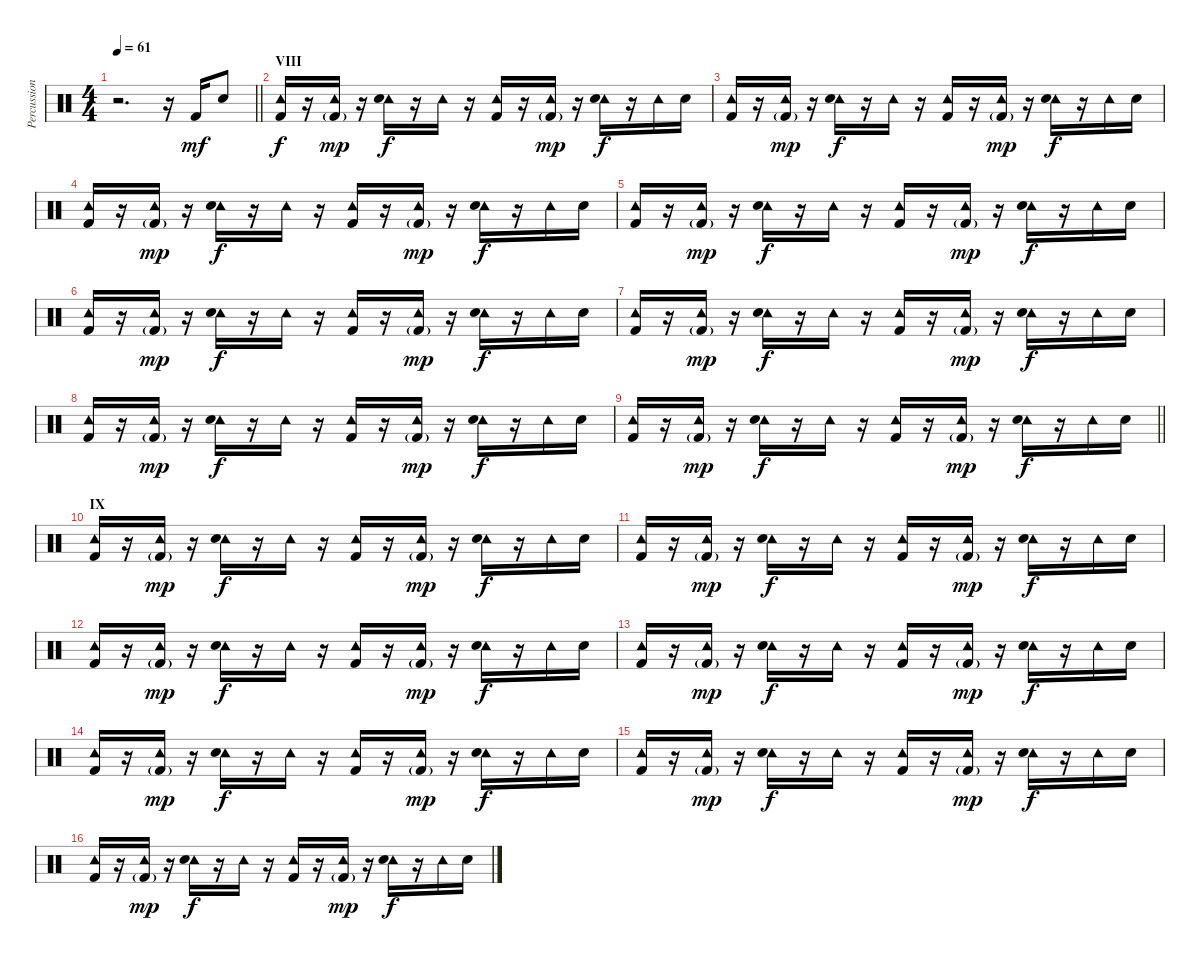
\track ("Percussion" "Percussion") {instrument percussion}
\staff {score}
\articulation defaults
\ts (4 4)
\tempo 61
\clef neutral
\barLineRight lightlight
\ks c
r.2{d dy f} r.16 "Kick (hit) 2".16{dy mf} "Snare (hit) 2".8 |
\section ("" "VIII")
("Tambourine (hit)" "Kick (hit) 2").16{dy f} r.16 ("Tambourine (hit)" "Kick (hit) 2"{g}).16{dy mp} r.16 ("Tambourine (hit)" "Hand Clap (hit)").16{dy f} r.16 "Tambourine (hit)".16 r.16 ("Tambourine (hit)" "Kick (hit) 2").16 r.16 ("Tambourine (hit)" "Kick (hit) 2"{g}).16{dy mp} r.16 ("Tambourine (hit)" "Hand Clap (hit)").16{dy f} r.16 "Tambourine (hit)".16 "Hand Clap (hit)".16 |
("Tambourine (hit)" "Kick (hit) 2").16 r.16 ("Tambourine (hit)" "Kick (hit) 2"{g}).16{dy mp} r.16 ("Tambourine (hit)" "Hand Clap (hit)").16{dy f} r.16 "Tambourine (hit)".16 r.16 ("Tambourine (hit)" "Kick (hit) 2").16 r.16 ("Tambourine (hit)" "Kick (hit) 2"{g}).16{dy mp} r.16 ("Tambourine (hit)" "Hand Clap (hit)").16{dy f} r.16 "Tambourine (hit)".16 "Hand Clap (hit)".16 |
("Tambourine (hit)" "Kick (hit) 2").16 r.16 ("Tambourine (hit)" "Kick (hit) 2"{g}).16{dy mp} r.16 ("Tambourine (hit)" "Hand Clap (hit)").16{dy f} r.16 "Tambourine (hit)".16 r.16 ("Tambourine (hit)" "Kick (hit) 2").16 r.16 ("Tambourine (hit)" "Kick (hit) 2"{g}).16{dy mp} r.16 ("Tambourine (hit)" "Hand Clap (hit)").16{dy f} r.16 "Tambourine (hit)".16 "Hand Clap (hit)".16 |
("Tambourine (hit)" "Kick (hit) 2").16 r.16 ("Tambourine (hit)" "Kick (hit) 2"{g}).16{dy mp} r.16 ("Tambourine (hit)" "Hand Clap (hit)").16{dy f} r.16 "Tambourine (hit)".16 r.16 ("Tambourine (hit)" "Kick (hit) 2").16 r.16 ("Tambourine (hit)" "Kick (hit) 2"{g}).16{dy mp} r.16 ("Tambourine (hit)" "Hand Clap (hit)").16{dy f} r.16 "Tambourine (hit)".16 "Hand Clap (hit)".16 |
("Tambourine (hit)" "Kick (hit) 2").16 r.16 ("Tambourine (hit)" "Kick (hit) 2"{g}).16{dy mp} r.16 ("Tambourine (hit)" "Hand Clap (hit)").16{dy f} r.16 "Tambourine (hit)".16 r.16 ("Tambourine (hit)" "Kick (hit) 2").16 r.16 ("Tambourine (hit)" "Kick (hit) 2"{g}).16{dy mp} r.16 ("Tambourine (hit)" "Hand Clap (hit)").16{dy f} r.16 "Tambourine (hit)".16 "Hand Clap (hit)".16 |
("Tambourine (hit)" "Kick (hit) 2").16 r.16 ("Tambourine (hit)" "Kick (hit) 2"{g}).16{dy mp} r.16 ("Tambourine (hit)" "Hand Clap (hit)").16{dy f} r.16 "Tambourine (hit)".16 r.16 ("Tambourine (hit)" "Kick (hit) 2").16 r.16 ("Tambourine (hit)" "Kick (hit) 2"{g}).16{dy mp} r.16 ("Tambourine (hit)" "Hand Clap (hit)").16{dy f} r.16 "Tambourine (hit)".16 "Hand Clap (hit)".16 |
("Tambourine (hit)" "Kick (hit) 2").16 r.16 ("Tambourine (hit)" "Kick (hit) 2"{g}).16{dy mp} r.16 ("Tambourine (hit)" "Hand Clap (hit)").16{dy f} r.16 "Tambourine (hit)".16 r.16 ("Tambourine (hit)" "Kick (hit) 2").16 r.16 ("Tambourine (hit)" "Kick (hit) 2"{g}).16{dy mp} r.16 ("Tambourine (hit)" "Hand Clap (hit)").16{dy f} r.16 "Tambourine (hit)".16 "Hand Clap (hit)".16 |
\barLineRight lightlight
("Tambourine (hit)" "Kick (hit) 2").16 r.16 ("Tambourine (hit)" "Kick (hit) 2"{g}).16{dy mp} r.16 ("Tambourine (hit)" "Hand Clap (hit)").16{dy f} r.16 "Tambourine (hit)".16 r.16 ("Tambourine (hit)" "Kick (hit) 2").16 r.16 ("Tambourine (hit)" "Kick (hit) 2"{g}).16{dy mp} r.16 ("Tambourine (hit)" "Hand Clap (hit)").16{dy f} r.16 "Tambourine (hit)".16 "Hand Clap (hit)".16 |
\section ("" "IX")
("Tambourine (hit)" "Kick (hit) 2").16{volume 14} r.16 ("Tambourine (hit)" "Kick (hit) 2"{g}).16{dy mp} r.16 ("Tambourine (hit)" "Hand Clap (hit)").16{dy f} r.16 "Tambourine (hit)".16 r.16 ("Tambourine (hit)" "Kick (hit) 2").16 r.16 ("Tambourine (hit)" "Kick (hit) 2"{g}).16{dy mp} r.16 ("Tambourine (hit)" "Hand Clap (hit)").16{dy f} r.16 "Tambourine (hit)".16 "Hand Clap (hit)".16 |
("Tambourine (hit)" "Kick (hit) 2").16 r.16 ("Tambourine (hit)" "Kick (hit) 2"{g}).16{dy mp} r.16 ("Tambourine (hit)" "Hand Clap (hit)").16{dy f} r.16 "Tambourine (hit)".16 r.16 ("Tambourine (hit)" "Kick (hit) 2").16 r.16 ("Tambourine (hit)" "Kick (hit) 2"{g}).16{dy mp} r.16 ("Tambourine (hit)" "Hand Clap (hit)").16{dy f} r.16 "Tambourine (hit)".16 "Hand Clap (hit)".16 |
("Tambourine (hit)" "Kick (hit) 2").16 r.16 ("Tambourine (hit)" "Kick (hit) 2"{g}).16{dy mp} r.16 ("Tambourine (hit)" "Hand Clap (hit)").16{dy f} r.16 "Tambourine (hit)".16 r.16 ("Tambourine (hit)" "Kick (hit) 2").16 r.16 ("Tambourine (hit)" "Kick (hit) 2"{g}).16{dy mp} r.16 ("Tambourine (hit)" "Hand Clap (hit)").16{dy f} r.16 "Tambourine (hit)".16 "Hand Clap (hit)".16 |
("Tambourine (hit)" "Kick (hit) 2").16 r.16 ("Tambourine (hit)" "Kick (hit) 2"{g}).16{dy mp} r.16 ("Tambourine (hit)" "Hand Clap (hit)").16{dy f} r.16 "Tambourine (hit)".16 r.16 ("Tambourine (hit)" "Kick (hit) 2").16 r.16 ("Tambourine (hit)" "Kick (hit) 2"{g}).16{dy mp} r.16 ("Tambourine (hit)" "Hand Clap (hit)").16{dy f} r.16 "Tambourine (hit)".16 "Hand Clap (hit)".16 |
("Tambourine (hit)" "Kick (hit) 2").16 r.16 ("Tambourine (hit)" "Kick (hit) 2"{g}).16{dy mp} r.16 ("Tambourine (hit)" "Hand Clap (hit)").16{dy f} r.16 "Tambourine (hit)".16 r.16 ("Tambourine (hit)" "Kick (hit) 2").16 r.16 ("Tambourine (hit)" "Kick (hit) 2"{g}).16{dy mp} r.16 ("Tambourine (hit)" "Hand Clap (hit)").16{dy f} r.16 "Tambourine (hit)".16 "Hand Clap (hit)".16 |
("Tambourine (hit)" "Kick (hit) 2").16 r.16 ("Tambourine (hit)" "Kick (hit) 2"{g}).16{dy mp} r.16 ("Tambourine (hit)" "Hand Clap (hit)").16{dy f} r.16 "Tambourine (hit)".16 r.16 ("Tambourine (hit)" "Kick (hit) 2").16 r.16 ("Tambourine (hit)" "Kick (hit) 2"{g}).16{dy mp} r.16 ("Tambourine (hit)" "Hand Clap (hit)").16{dy f} r.16 "Tambourine (hit)".16 "Hand Clap (hit)".16 |
("Tambourine (hit)" "Kick (hit) 2").16 r.16 ("Tambourine (hit)" "Kick (hit) 2"{g}).16{dy mp} r.16 ("Tambourine (hit)" "Hand Clap (hit)").16{dy f} r.16 "Tambourine (hit)".16 r.16 ("Tambourine (hit)" "Kick (hit) 2").16 r.16 ("Tambourine (hit)" "Kick (hit) 2"{g}).16{dy mp} r.16 ("Tambourine (hit)" "Hand Clap (hit)").16{dy f} r.16 "Tambourine (hit)".16 "Hand Clap (hit)".16
